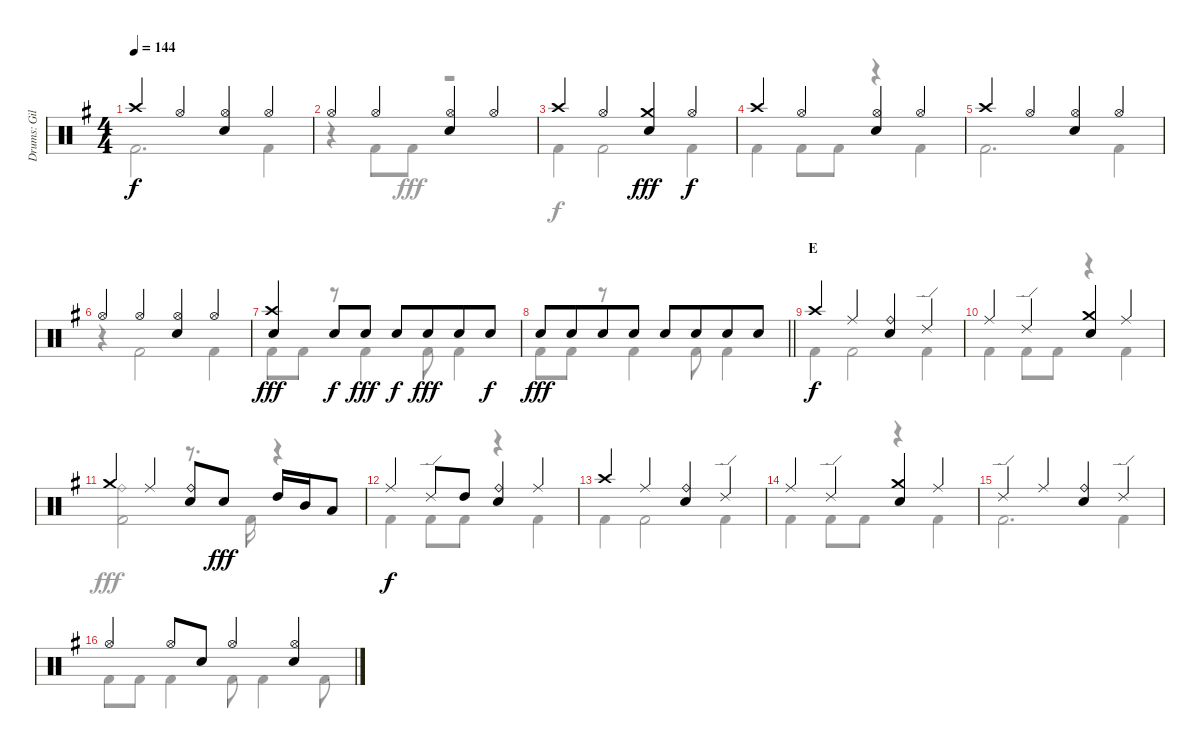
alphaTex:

\track ("Drums: Gil" "Drums: Gil") {instrument percussion}
\staff {score}
\articulation defaults
\voice
\ts (4 4)
\tempo 144
\clef neutral
\ks g "Crash high (hit)".4{dy f} "Hi-Hat (open)".4
("Hi-Hat (open)" "Snare (hit) 2").4 "Hi-Hat (open)".4 |
"Hi-Hat (open)".4 "Hi-Hat (open)".4 ("Hi-Hat (open)" "Snare (hit) 2").4 "Hi-Hat (open)".4 |
"Crash high (hit)".4 "Hi-Hat (open)".4 ("Crash medium (hit)" "Snare (hit) 2").4{dy fff} "Hi-Hat (open)".4{dy f} |
"Crash high (hit)".4 "Hi-Hat (open)".4 ("Hi-Hat (open)" "Snare (hit) 2").4 "Hi-Hat (open)".4 |
"Crash high (hit)".4 "Hi-Hat (open)".4 ("Hi-Hat (open)" "Snare (hit) 2").4 "Hi-Hat (open)".4 |
"Hi-Hat (open)".4 "Hi-Hat (open)".4 ("Hi-Hat (open)" "Snare (hit) 2").4 "Hi-Hat (open)".4 |
("Crash high (hit)" "Snare (hit) 2").4{dy fff} "Snare (hit) 2".8{dy f volume 1} "Snare (hit) 2".8{dy fff} "Snare (hit) 2".8{dy f volume 13} "Snare (hit) 2".8{dy fff beam merge} "Snare (hit) 2".8 "Snare (hit) 2".8{dy f} |
\barLineRight lightlight "Snare (hit) 2".8{dy fff} "Snare (hit) 2".8{beam merge} "Snare (hit) 2".8 "Snare (hit) 2".8 "Snare (hit) 2".8 "Snare (hit) 2".8{beam merge} "Snare (hit) 2".8 "Snare (hit) 2".8
|
\section ("" "E")
"Crash high (hit)".4{dy f} "Ride (middle)".4 ("Ride (bell)" "Snare (hit) 2").4 "Ride (edge) 2".4 |
"Ride (middle)".4 "Ride (edge) 2".4 ("Crash medium (hit)" "Snare (hit) 2").4 "Ride (middle)".4 |
"Crash medium (hit)".4 "Ride (middle)".4 ("Ride (bell)" "Snare (hit) 2").8 "Snare (hit) 2".8{dy fff} "High Tom (hit)".16 "Mid Tom (hit)".16 "Low Tom (hit)".8 |
"Ride (middle)".4{dy f} "Ride (edge) 2".8 "High Tom (hit)".8 ("Ride (bell)" "Snare (hit) 2").4 "Ride (middle)".4 |
"Crash high (hit)".4 "Ride (middle)".4 ("Ride (bell)" "Snare (hit) 2").4 "Ride (edge) 2".4 |
"Ride (middle)".4 "Ride (edge) 2".4 ("Crash medium (hit)" "Snare (hit) 2").4 "Ride (middle)".4 |
"Ride (edge) 2".4 "Ride (middle)".4 ("Ride (bell)" "Snare (hit) 2").4 "Ride (edge) 2".4 |
"Hi-Hat (open)".4 "Hi-Hat (open)".8 "Snare (hit) 2".8 "Hi-Hat (open)".4 ("Hi-Hat (open)" "Snare (hit) 2").4
\voice
\clef neutral
\ottava regular
\simile none
\ks g "Kick (hit) 2".2{d dy f} "Kick (hit) 2".4
|
r.4 "Kick (hit) 2".8 "Kick (hit) 2".8{dy fff} r.2 |
"Kick (hit) 2".4{dy f} "Kick (hit) 2".2 "Kick (hit) 2".4 |
"Kick (hit) 2".4 "Kick (hit) 2".8 "Kick (hit) 2".8 r.4 "Kick (hit) 2".4 |
"Kick (hit) 2".2{d} "Kick (hit) 2".4 |
r.4 "Kick (hit) 2".2 "Kick (hit) 2".4 |
"Kick (hit) 2".8 "Kick (hit) 2".8 r.8 "Kick (hit) 2".4 "Kick (hit) 2".8 "Kick (hit) 2".4 |
\barLineRight lightlight "Kick (hit) 2".8 "Kick (hit) 2".8
r.8 "Kick (hit) 2".4 "Kick (hit) 2".8 "Kick (hit) 2".4 |
"Kick (hit) 2".4 "Kick (hit) 2".2 "Kick (hit) 2".4 |
"Kick (hit) 2".4 "Kick (hit) 2".8 "Kick (hit) 2".8 r.4 "Kick (hit) 2".4 |
("Ride (bell)" "Kick (hit) 2").2{dy fff} r.8{d} "Kick (hit) 2".16 r.4 |
"Kick (hit) 2".4{dy f} "Kick (hit) 2".8 "Kick (hit) 2".8 r.4 "Kick (hit) 2".4 |
"Kick (hit) 2".4 "Kick (hit) 2".2 "Kick (hit) 2".4 |
"Kick (hit) 2".4 "Kick (hit) 2".8 "Kick (hit) 2".8 r.4 "Kick (hit) 2".4 |
"Kick (hit) 2".2{d} "Kick (hit) 2".4 |
"Kick (hit) 2".8 "Kick (hit) 2".8 "Kick (hit) 2".4 "Kick (hit) 2".8 "Kick (hit) 2".4 "Kick (hit) 2".8
